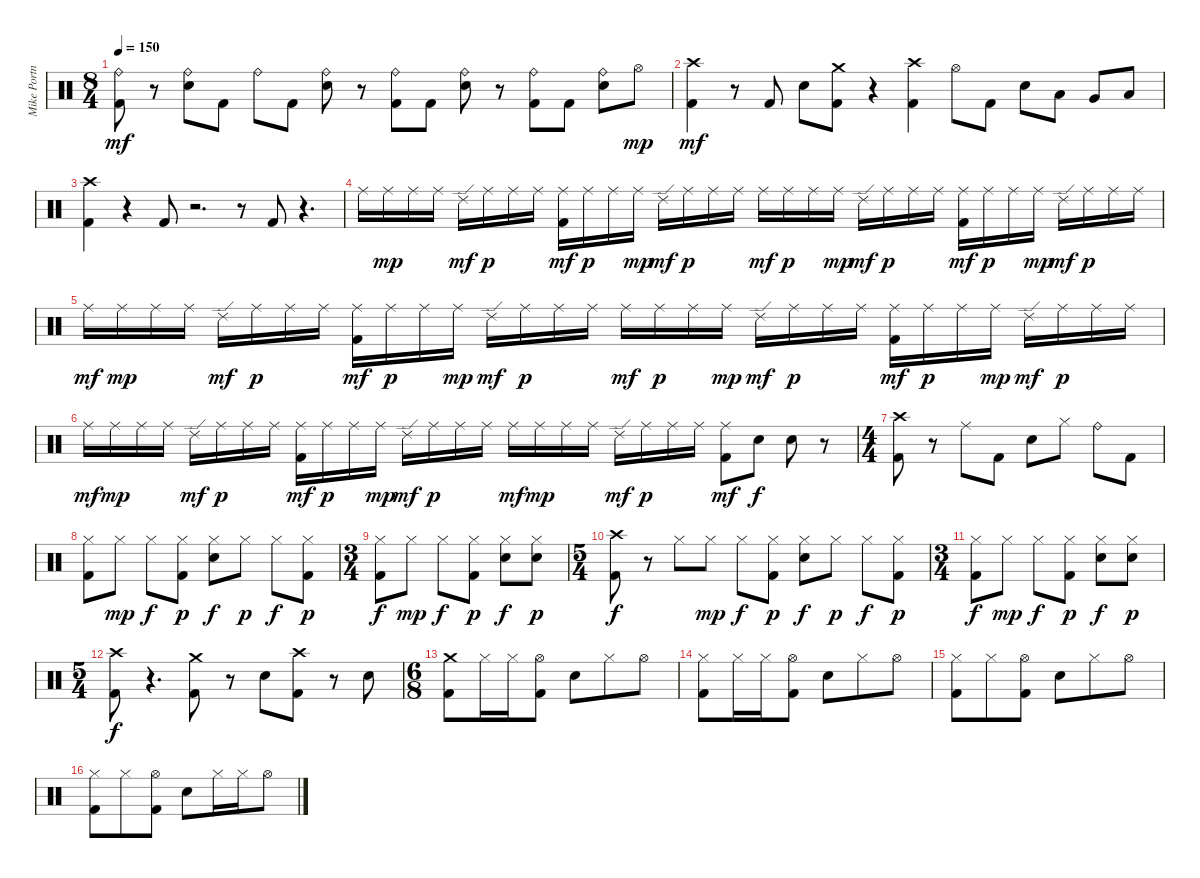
\track ("Mike Portnoy: Drums" "Mike Portn") {instrument percussion}
\staff {score}
\articulation defaults
\ts (8 4)
\tempo 150
\clef neutral
\ks c
("Kick (hit) 2" "Ride (bell)").8{dy mf} r.8 ("Electric Snare (hit)" "Ride (bell)").8 "Kick (hit) 2".8 "Ride (bell)".8 "Kick (hit) 2".8 ("Electric Snare (hit)" "Ride (bell)").8 r.8 ("Kick (hit) 2" "Ride (bell)").8 "Kick (hit) 2".8 ("Electric Snare (hit)" "Ride (bell)").8 r.8 ("Kick (hit) 2" "Ride (bell)").8 "Kick (hit) 2".8 ("Electric Snare (hit)" "Ride (bell)").8 "Hi-Hat (open)".8{dy mp} |
("Kick (hit) 2" "Crash high (hit)").4{dy mf} r.8 "Kick (hit) 2".8 "Electric Snare (hit)".8 ("Kick (hit) 2" "Crash medium (hit)").8 r.4 ("Kick (hit) 2" "Crash high (hit)").4 "Hi-Hat (open)".8 "Kick (hit) 2".8 "Electric Snare (hit)".8 "Low Tom (hit)".8 "Very Low Tom (hit)".8 "Low Floor Tom (hit)".8 |
("Kick (hit) 2" "Crash high (hit)").4 r.4 "Kick (hit) 2".8 r.2{d} r.8 "Kick (hit) 2".8 r.4{d} |
"Ride (middle)".16 "Ride (middle)".16{dy mp} "Ride (middle)".16 "Ride (middle)".16 "Ride (edge) 2".16{dy mf} "Ride (middle)".16{dy p} "Ride (middle)".16 "Ride (middle)".16 ("Kick (hit) 2" "Ride (middle)").16{dy mf} "Ride (middle)".16{dy p} "Ride (middle)".16 "Ride (middle)".16{dy mp} "Ride (edge) 2".16{dy mf} "Ride (middle)".16{dy p} "Ride (middle)".16 "Ride (middle)".16 "Ride (middle)".16{dy mf} "Ride (middle)".16{dy p} "Ride (middle)".16 "Ride (middle)".16{dy mp} "Ride (edge) 2".16{dy mf} "Ride (middle)".16{dy p} "Ride (middle)".16 "Ride (middle)".16 ("Kick (hit) 2" "Ride (middle)").16{dy mf} "Ride (middle)".16{dy p} "Ride (middle)".16 "Ride (middle)".16{dy mp} "Ride (edge) 2".16{dy mf} "Ride (middle)".16{dy p} "Ride (middle)".16 "Ride (middle)".16 |
"Ride (middle)".16{dy mf} "Ride (middle)".16{dy mp} "Ride (middle)".16 "Ride (middle)".16 "Ride (edge) 2".16{dy mf} "Ride (middle)".16{dy p} "Ride (middle)".16 "Ride (middle)".16 ("Kick (hit) 2" "Ride (middle)").16{dy mf} "Ride (middle)".16{dy p} "Ride (middle)".16 "Ride (middle)".16{dy mp} "Ride (edge) 2".16{dy mf} "Ride (middle)".16{dy p} "Ride (middle)".16 "Ride (middle)".16 "Ride (middle)".16{dy mf} "Ride (middle)".16{dy p} "Ride (middle)".16 "Ride (middle)".16{dy mp} "Ride (edge) 2".16{dy mf} "Ride (middle)".16{dy p} "Ride (middle)".16 "Ride (middle)".16 ("Kick (hit) 2" "Ride (middle)").16{dy mf} "Ride (middle)".16{dy p} "Ride (middle)".16 "Ride (middle)".16{dy mp} "Ride (edge) 2".16{dy mf} "Ride (middle)".16{dy p} "Ride (middle)".16 "Ride (middle)".16 |
"Ride (middle)".16{dy mf} "Ride (middle)".16{dy mp} "Ride (middle)".16 "Ride (middle)".16 "Ride (edge) 2".16{dy mf} "Ride (middle)".16{dy p} "Ride (middle)".16 "Ride (middle)".16 ("Kick (hit) 2" "Ride (middle)").16{dy mf} "Ride (middle)".16{dy p} "Ride (middle)".16 "Ride (middle)".16{dy mp} "Ride (edge) 2".16{dy mf} "Ride (middle)".16{dy p} "Ride (middle)".16 "Ride (middle)".16 "Ride (middle)".16{dy mf} "Ride (middle)".16{dy mp} "Ride (middle)".16 "Ride (middle)".16 "Ride (edge) 2".16{dy mf} "Ride (middle)".16{dy p} "Ride (middle)".16 "Ride (middle)".16 ("Kick (hit) 2" "Ride (middle)").8{dy mf} "Electric Snare (hit)".8{dy f} "Electric Snare (hit)".8 r.8 |
\ts (4 4)
("Kick (hit) 2" "Crash high (hit)").8 r.8 "Ride (middle)".8 "Kick (hit) 2".8 "Electric Snare (hit)".8 "Hi-Hat (closed)".8 "Ride (bell)".8 "Kick (hit) 2".8 |
("Kick (hit) 2" "Hi-Hat (closed)").8 "Hi-Hat (closed)".8{dy mp} "Hi-Hat (closed)".8{dy f} ("Kick (hit) 2" "Hi-Hat (closed)").8{dy p} ("Electric Snare (hit)" "Hi-Hat (closed)").8{dy f} "Hi-Hat (closed)".8{dy p} "Hi-Hat (closed)".8{dy f} ("Kick (hit) 2" "Hi-Hat (closed)").8{dy p} |
\ts (3 4)
("Kick (hit) 2" "Hi-Hat (closed)").8{dy f} "Hi-Hat (closed)".8{dy mp} "Hi-Hat (closed)".8{dy f} ("Kick (hit) 2" "Hi-Hat (closed)").8{dy p} ("Electric Snare (hit)" "Hi-Hat (closed)").8{dy f} ("Electric Snare (hit)" "Hi-Hat (closed)").8{dy p} |
\ts (5 4)
("Kick (hit) 2" "Crash high (hit)").8{dy f} r.8 "Hi-Hat (closed)".8 "Hi-Hat (closed)".8{dy mp} "Hi-Hat (closed)".8{dy f} ("Kick (hit) 2" "Hi-Hat (closed)").8{dy p} ("Electric Snare (hit)" "Hi-Hat (closed)").8{dy f} "Hi-Hat (closed)".8{dy p} "Hi-Hat (closed)".8{dy f} ("Kick (hit) 2" "Hi-Hat (closed)").8{dy p} |
\ts (3 4)
("Kick (hit) 2" "Hi-Hat (closed)").8{dy f} "Hi-Hat (closed)".8{dy mp} "Hi-Hat (closed)".8{dy f} ("Kick (hit) 2" "Hi-Hat (closed)").8{dy p} ("Electric Snare (hit)" "Hi-Hat (closed)").8{dy f} ("Electric Snare (hit)" "Hi-Hat (closed)").8{dy p} |
\ts (5 4)
("Kick (hit) 2" "Crash high (hit)").8{dy f} r.4{d} ("Kick (hit) 2" "Crash medium (hit)").8 r.8 "Electric Snare (hit)".8 ("Kick (hit) 2" "Crash high (hit)").8 r.8 "Electric Snare (hit)".8 |
\ts (6 8)
("Kick (hit) 2" "Crash medium (hit)").8 "Hi-Hat (closed)".16 "Hi-Hat (closed)".16 ("Kick (hit) 2" "Hi-Hat (open)").8 "Electric Snare (hit)".8 "Hi-Hat (closed)".8 "Hi-Hat (open)".8 |
("Kick (hit) 2" "Hi-Hat (closed)").8 "Hi-Hat (closed)".16 "Hi-Hat (closed)".16 ("Kick (hit) 2" "Hi-Hat (open)").8 "Electric Snare (hit)".8 "Hi-Hat (closed)".8 "Hi-Hat (open)".8 |
("Kick (hit) 2" "Hi-Hat (closed)").8 "Hi-Hat (closed)".8 ("Kick (hit) 2" "Hi-Hat (open)").8 "Electric Snare (hit)".8 "Hi-Hat (closed)".8 "Hi-Hat (open)".8 |
("Kick (hit) 2" "Hi-Hat (closed)").8 "Hi-Hat (closed)".8 ("Kick (hit) 2" "Hi-Hat (open)").8 "Electric Snare (hit)".8 "Hi-Hat (closed)".16 "Hi-Hat (closed)".16 "Hi-Hat (open)".8
